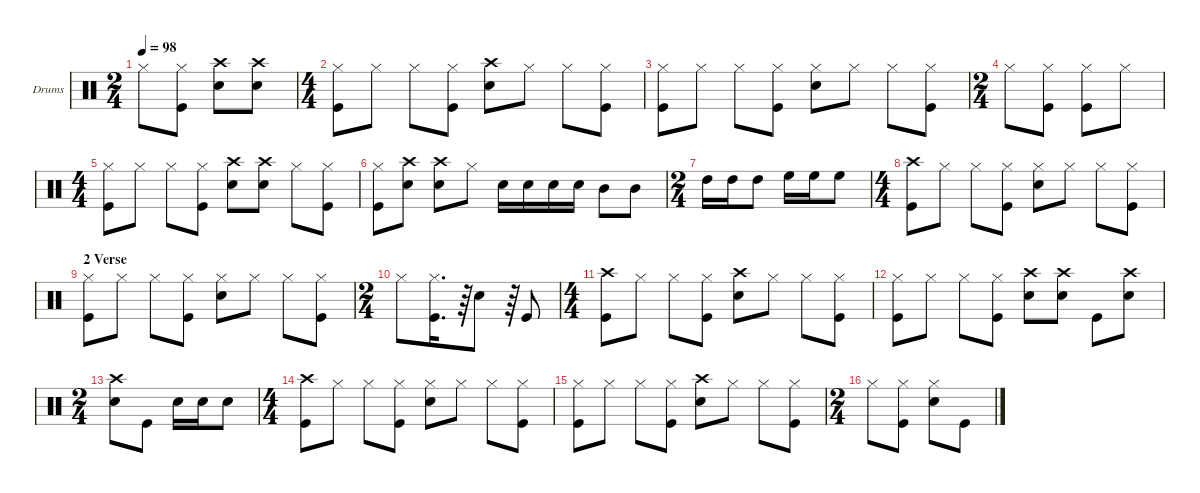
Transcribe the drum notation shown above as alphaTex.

\hideDynamics
\bracketExtendMode groupsimilarinstruments
\firstSystemTrackNameOrientation horizontal
\otherSystemsTrackNameOrientation horizontal
\track ("Drumkit" "Drums") {multiBarRest instrument percussion}
\staff {score}
\articulation defaults
\ts (2 4)
\tempo 98
\clef neutral
\ks c "Hi-Hat (closed)".8{dy f}
("Kick (hit)" "Hi-Hat (closed)").8 ("Crash high (hit)" "Snare (hit) 2").8 ("Crash high (hit)" "Snare (hit) 2").8 |
\ts (4 4)
("Kick (hit)" "Hi-Hat (closed)").8 "Hi-Hat (closed)".8 "Hi-Hat (closed)".8 ("Kick (hit)" "Hi-Hat (closed)").8 ("Crash high (hit)" "Snare (hit) 2").8 "Hi-Hat (closed)".8 "Hi-Hat (closed)".8 ("Kick (hit)" "Hi-Hat (closed)").8 |
("Hi-Hat (closed)" "Kick (hit)").8 "Hi-Hat (closed)".8 "Hi-Hat (closed)".8 ("Kick (hit)" "Hi-Hat (closed)").8 ("Snare (hit) 2" "Hi-Hat (closed)").8 "Hi-Hat (closed)".8 "Hi-Hat (closed)".8 ("Kick (hit)" "Hi-Hat (closed)").8 |
\ts (2 4)
"Hi-Hat (closed)".8 ("Hi-Hat (closed)" "Kick (hit)").8 ("Hi-Hat (closed)" "Kick (hit)").8 "Hi-Hat (closed)".8 |
\ts (4 4)
("Hi-Hat (closed)" "Kick (hit)").8 "Hi-Hat (closed)".8 "Hi-Hat (closed)".8 ("Kick (hit)" "Hi-Hat (closed)").8 ("Crash high (hit)" "Snare (hit) 2").8 ("Crash high (hit)" "Snare (hit) 2").8 "Hi-Hat (closed)".8 ("Kick (hit)" "Hi-Hat (closed)").8 |
("Hi-Hat (closed)" "Kick (hit)").8 ("Crash high (hit)" "Snare (hit) 2").8 ("Crash high (hit)" "Snare (hit) 2").8 "Hi-Hat (closed)".8 "Snare (hit) 2".16 "Snare (hit) 2".16 "Snare (hit) 2".16 "Snare (hit) 2".16 "Mid Tom (hit)".8 "Mid Tom (hit)".8 |
\ts (2 4)
"High Tom (hit)".16 "High Tom (hit)".16 "High Tom (hit)".8 "High Floor Tom (hit)".16 "High Floor Tom (hit)".16 "High Floor Tom (hit)".8 |
\ts (4 4)
("Kick (hit)" "Crash high (hit)").8 "Hi-Hat (closed)".8 "Hi-Hat (closed)".8 ("Kick (hit)" "Hi-Hat (closed)").8 ("Snare (hit) 2" "Hi-Hat (closed)").8 "Hi-Hat (closed)".8 "Hi-Hat (closed)".8 ("Kick (hit)" "Hi-Hat (closed)").8 |
\section ("" "2 Verse")
("Kick (hit)" "Hi-Hat (closed)").8 "Hi-Hat (closed)".8 "Hi-Hat (closed)".8 ("Kick (hit)" "Hi-Hat (closed)").8 ("Hi-Hat (closed)" "Snare (hit) 2").8 "Hi-Hat (closed)".8 "Hi-Hat (closed)".8 ("Kick (hit)" "Hi-Hat (closed)").8 |
\ts (2 4)
"Hi-Hat (closed)".8 ("Kick (hit)" "Hi-Hat (closed)").16{d} r.64 "Snare (hit) 2".8 r.64 "Kick (hit)".8 |
\ts (4 4)
("Crash high (hit)" "Kick (hit)").8 "Hi-Hat (closed)".8 "Hi-Hat (closed)".8 ("Kick (hit)" "Hi-Hat (closed)").8 ("Crash high (hit)" "Snare (hit) 2").8 "Hi-Hat (closed)".8 "Hi-Hat (closed)".8 ("Kick (hit)" "Hi-Hat (closed)").8 |
("Hi-Hat (closed)" "Kick (hit)").8 "Hi-Hat (closed)".8 "Hi-Hat (closed)".8 ("Hi-Hat (closed)" "Kick (hit)").8 ("Crash high (hit)" "Snare (hit) 2").8 ("Crash high (hit)" "Snare (hit) 2").8 "Kick (hit)".8 ("Crash high (hit)" "Snare (hit) 2").8 |
\ts (2 4)
("Snare (hit) 2" "Crash high (hit)").8 "Kick (hit)".8 "Snare (hit) 2".16 "Snare (hit) 2".16 "Snare (hit) 2".8 |
\ts (4 4)
("Kick (hit)" "Crash high (hit)").8 "Hi-Hat (closed)".8 "Hi-Hat (closed)".8 ("Kick (hit)" "Hi-Hat (closed)").8 ("Snare (hit) 2" "Hi-Hat (closed)").8 "Hi-Hat (closed)".8 "Hi-Hat (closed)".8 ("Kick (hit)" "Hi-Hat (closed)").8 |
("Hi-Hat (closed)" "Kick (hit)").8 "Hi-Hat (closed)".8 "Hi-Hat (closed)".8 ("Hi-Hat (closed)" "Kick (hit)").8 ("Crash high (hit)" "Snare (hit) 2").8 "Hi-Hat (closed)".8 "Hi-Hat (closed)".8 ("Hi-Hat (closed)" "Kick (hit)").8 |
\ts (2 4)
"Hi-Hat (closed)".8 ("Kick (hit)" "Hi-Hat (closed)").8 ("Snare (hit) 2" "Hi-Hat (closed)").8 "Kick (hit)".8
